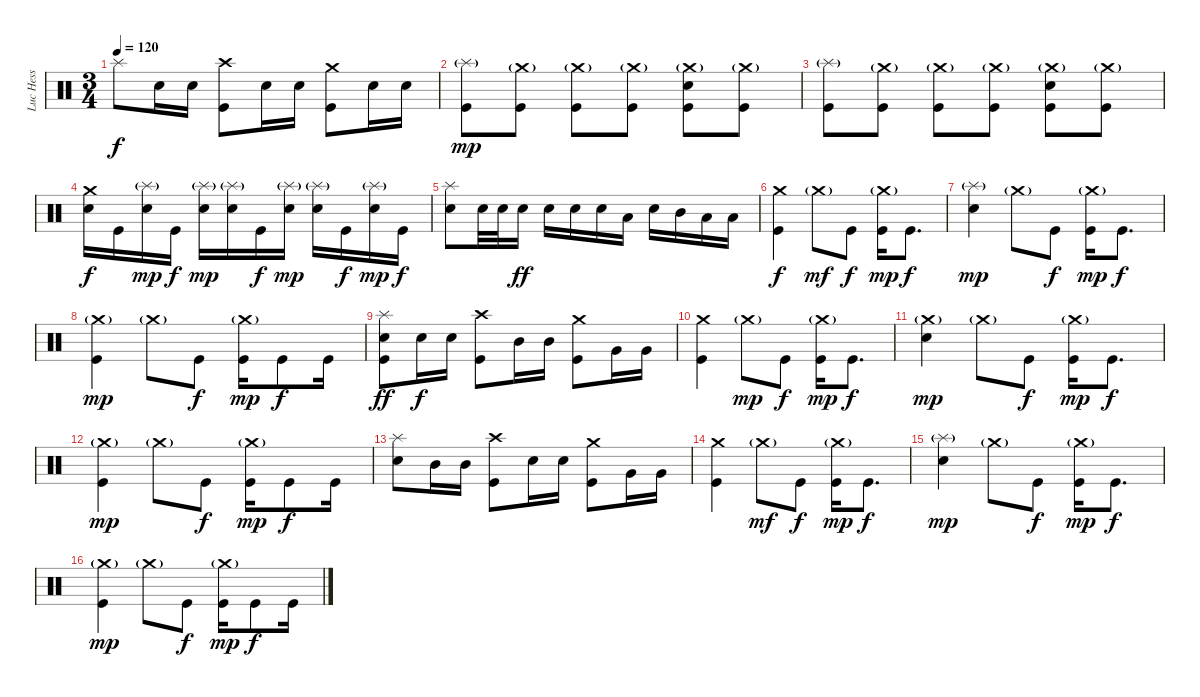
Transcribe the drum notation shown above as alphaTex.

\track ("Luc Hess" "Luc Hess") {instrument percussion}
\staff {score}
\articulation defaults
\ts (3 4)
\tempo 120
\clef neutral
\ks c "Splash (hit)".8{dy f} "Snare (hit) 2".16 "Snare (hit) 2".16
("Crash high (hit)" "Kick (hit)").8 "Snare (hit) 2".16 "Snare (hit) 2".16 ("Crash medium (hit)" "Kick (hit)").8 "Snare (hit) 2".16 "Snare (hit) 2".16 |
("Splash (hit)"{g} "Kick (hit)").8{dy mp} ("Crash medium (hit)"{g} "Kick (hit)").8 ("Crash medium (hit)"{g} "Kick (hit)").8 ("Crash medium (hit)"{g} "Kick (hit)").8 ("Snare (hit) 2" "Crash medium (hit)"{g} "Kick (hit)").8 ("Crash medium (hit)"{g} "Kick (hit)").8 |
("Splash (hit)"{g} "Kick (hit)").8 ("Crash medium (hit)"{g} "Kick (hit)").8 ("Crash medium (hit)"{g} "Kick (hit)").8 ("Crash medium (hit)"{g} "Kick (hit)").8 ("Snare (hit) 2" "Crash medium (hit)"{g} "Kick (hit)").8 ("Crash medium (hit)"{g} "Kick (hit)").8 |
("Snare (hit) 2" "Crash medium (hit)").16{dy f} "Kick (hit)".16 ("Snare (hit) 2" "Splash (hit)"{g}).16{dy mp} "Kick (hit)".16{dy f} ("Snare (hit) 2" "Splash (hit)"{g}).16{dy mp} ("Snare (hit) 2" "Splash (hit)"{g}).16 "Kick (hit)".16{dy f} ("Snare (hit) 2" "Splash (hit)"{g}).16{dy mp} ("Snare (hit) 2" "Splash (hit)"{g}).16 "Kick (hit)".16{dy f} ("Snare (hit) 2" "Splash (hit)"{g}).16{dy mp} "Kick (hit)".16{dy f} |
("Snare (hit) 2" "Splash (hit)").8 "Snare (hit) 2".32 "Snare (hit) 2".32 "Snare (hit) 2".16{dy ff} "Snare (hit) 2".16 "Snare (hit) 2".16 "Snare (hit) 2".16 "Low Tom (hit)".16 "Snare (hit) 2".16 "Mid Tom (hit)".16 "Low Tom (hit)".16 "Low Tom (hit)".16 |
("Crash medium (hit)" "Kick (hit)").4{dy f} "Crash medium (hit)"{g}.8{dy mf} "Kick (hit)".8{dy f} ("Crash medium (hit)"{g} "Kick (hit)").16{dy mp} "Kick (hit)".8{d dy f} |
("Snare (hit) 2" "Splash (hit)"{g}).4{dy mp} "Crash medium (hit)"{g}.8 "Kick (hit)".8{dy f} ("Crash medium (hit)"{g} "Kick (hit)").16{dy mp} "Kick (hit)".8{d dy f} |
("Crash medium (hit)"{g} "Kick (hit)").4{dy mp} "Crash medium (hit)"{g}.8 "Kick (hit)".8{dy f} ("Crash medium (hit)"{g} "Kick (hit)").16{dy mp} "Kick (hit)".8{dy f} "Kick (hit)".16 |
("Snare (hit) 2" "Splash (hit)" "Kick (hit)").8{dy ff} "Snare (hit) 2".16{dy f} "Snare (hit) 2".16 ("Crash high (hit)" "Kick (hit)").8 "Mid Tom (hit)".16 "Mid Tom (hit)".16 ("Crash medium (hit)" "Kick (hit)").8 "Very Low Tom (hit)".16 "Very Low Tom (hit)".16 |
("Crash medium (hit)" "Kick (hit)").4 "Crash medium (hit)"{g}.8{dy mp} "Kick (hit)".8{dy f} ("Crash medium (hit)"{g} "Kick (hit)").16{dy mp} "Kick (hit)".8{d dy f} |
("Snare (hit) 2" "Crash medium (hit)"{g}).4{dy mp} "Crash medium (hit)"{g}.8 "Kick (hit)".8{dy f} ("Crash medium (hit)"{g} "Kick (hit)").16{dy mp} "Kick (hit)".8{d dy f} |
("Crash medium (hit)"{g} "Kick (hit)").4{dy mp} "Crash medium (hit)"{g}.8 "Kick (hit)".8{dy f} ("Crash medium (hit)"{g} "Kick (hit)").16{dy mp} "Kick (hit)".8{dy f} "Kick (hit)".16 |
("Snare (hit) 2" "Splash (hit)").8 "Mid Tom (hit)".16 "Mid Tom (hit)".16 ("Crash high (hit)" "Kick (hit)").8 "Snare (hit) 2".16 "Snare (hit) 2".16 ("Crash medium (hit)" "Kick (hit)").8 "Very Low Tom (hit)".16 "Very Low Tom (hit)".16 |
("Crash medium (hit)" "Kick (hit)").4 "Crash medium (hit)"{g}.8{dy mf} "Kick (hit)".8{dy f} ("Crash medium (hit)"{g} "Kick (hit)").16{dy mp} "Kick (hit)".8{d dy f} |
("Snare (hit) 2" "Splash (hit)"{g}).4{dy mp} "Crash medium (hit)"{g}.8 "Kick (hit)".8{dy f} ("Crash medium (hit)"{g} "Kick (hit)").16{dy mp} "Kick (hit)".8{d dy f} |
("Crash medium (hit)"{g} "Kick (hit)").4{dy mp} "Crash medium (hit)"{g}.8 "Kick (hit)".8{dy f} ("Crash medium (hit)"{g} "Kick (hit)").16{dy mp} "Kick (hit)".8{dy f} "Kick (hit)".16
